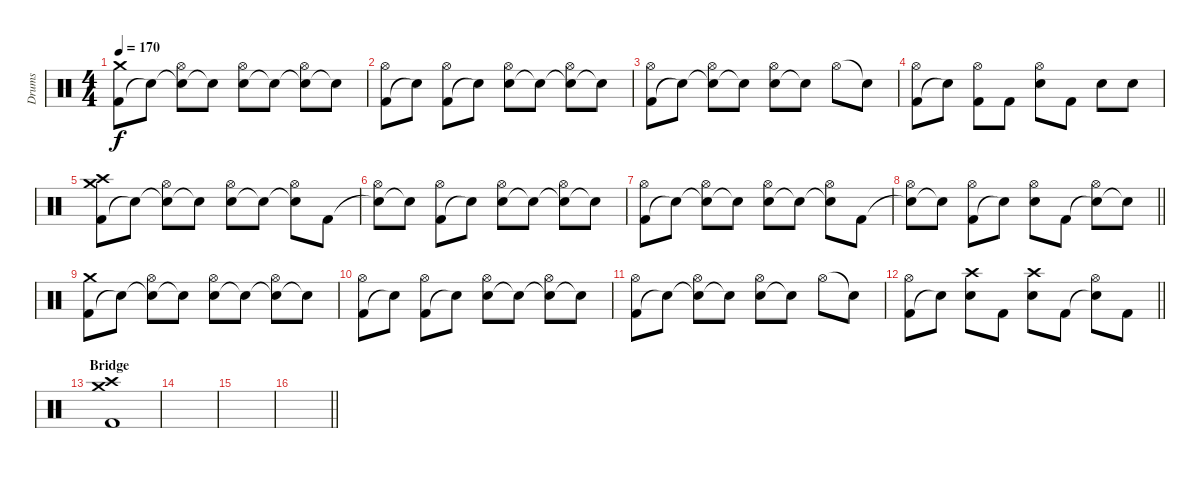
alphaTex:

\track ("Drums" "Drums") {instrument percussion}
\staff {score}
\articulation defaults
\ts (4 4)
\tempo 170
\clef neutral
\ks c
("Kick (hit) 2" "Crash medium (hit)").8{dy f} "Snare (hit)"{t}.8 ("Snare (hit)"{t} "Hi-Hat (open)").8 "Snare (hit)"{t}.8 ("Electric Snare (hit)" "Hi-Hat (open)").8 "Snare (hit)"{t}.8 ("Snare (hit)"{t} "Hi-Hat (open)").8 "Snare (hit)"{t}.8 |
("Kick (hit) 2" "Hi-Hat (open)").8 "Snare (hit)"{t}.8 ("Kick (hit) 2" "Hi-Hat (open)").8 "Snare (hit)"{t}.8 ("Electric Snare (hit)" "Hi-Hat (open)").8 "Snare (hit)"{t}.8 ("Snare (hit)"{t} "Hi-Hat (open)").8 "Snare (hit)"{t}.8 |
("Kick (hit) 2" "Hi-Hat (open)").8 "Snare (hit)"{t}.8 ("Snare (hit)"{t} "Hi-Hat (open)").8 "Snare (hit)"{t}.8 ("Electric Snare (hit)" "Hi-Hat (open)").8 "Snare (hit)"{t}.8 "Hi-Hat (open)".8 "Snare (hit)"{t}.8 |
("Kick (hit) 2" "Hi-Hat (open)").8 "Snare (hit)"{t}.8 ("Kick (hit) 2" "Hi-Hat (open)").8 "Kick (hit) 2".8 ("Electric Snare (hit)" "Hi-Hat (open)").8 "Kick (hit) 2".8 "Electric Snare (hit)".8 "Electric Snare (hit)".8 |
("Kick (hit) 2" "Crash medium (hit)" "Crash high (hit)").8 "Snare (hit)"{t}.8 ("Snare (hit)"{t} "Hi-Hat (open)").8 "Snare (hit)"{t}.8 ("Electric Snare (hit)" "Hi-Hat (open)").8 "Snare (hit)"{t}.8 ("Snare (hit)"{t} "Hi-Hat (open)").8 "Kick (hit) 2".8 |
("Snare (hit)"{t} "Hi-Hat (open)").8 "Snare (hit)"{t}.8 ("Kick (hit) 2" "Hi-Hat (open)").8 "Snare (hit)"{t}.8 ("Electric Snare (hit)" "Hi-Hat (open)").8 "Snare (hit)"{t}.8 ("Snare (hit)"{t} "Hi-Hat (open)").8 "Snare (hit)"{t}.8 |
("Kick (hit) 2" "Hi-Hat (open)").8 "Snare (hit)"{t}.8 ("Snare (hit)"{t} "Hi-Hat (open)").8 "Snare (hit)"{t}.8 ("Electric Snare (hit)" "Hi-Hat (open)").8 "Snare (hit)"{t}.8 ("Snare (hit)"{t} "Hi-Hat (open)").8 "Kick (hit) 2".8 |
\barLineRight lightlight
("Snare (hit)"{t} "Hi-Hat (open)").8 "Snare (hit)"{t}.8 ("Kick (hit) 2" "Hi-Hat (open)").8 "Snare (hit)"{t}.8 ("Electric Snare (hit)" "Hi-Hat (open)").8 "Kick (hit) 2".8 ("Snare (hit)"{t} "Hi-Hat (open)").8 "Snare (hit)"{t}.8 |
("Kick (hit) 2" "Crash medium (hit)").8 "Snare (hit)"{t}.8 ("Snare (hit)"{t} "Hi-Hat (open)").8 "Snare (hit)"{t}.8 ("Electric Snare (hit)" "Hi-Hat (open)").8 "Snare (hit)"{t}.8 ("Snare (hit)"{t} "Hi-Hat (open)").8 "Snare (hit)"{t}.8 |
("Kick (hit) 2" "Hi-Hat (open)").8 "Snare (hit)"{t}.8 ("Kick (hit) 2" "Hi-Hat (open)").8 "Snare (hit)"{t}.8 ("Electric Snare (hit)" "Hi-Hat (open)").8 "Snare (hit)"{t}.8 ("Snare (hit)"{t} "Hi-Hat (open)").8 "Snare (hit)"{t}.8 |
("Kick (hit) 2" "Hi-Hat (open)").8 "Snare (hit)"{t}.8 ("Snare (hit)"{t} "Hi-Hat (open)").8 "Snare (hit)"{t}.8 ("Electric Snare (hit)" "Hi-Hat (open)").8 "Snare (hit)"{t}.8 "Hi-Hat (open)".8 "Snare (hit)"{t}.8 |
\barLineRight lightlight
("Kick (hit) 2" "Hi-Hat (open)").8 "Snare (hit)"{t}.8 ("Electric Snare (hit)" "Crash high (hit)").8 "Kick (hit) 2".8 ("Electric Snare (hit)" "Crash high (hit)").8 "Kick (hit) 2".8 ("Electric Snare (hit)"{t} "Hi-Hat (open)").8 "Kick (hit) 2".8 |
\section ("" "Bridge")
("Kick (hit) 2" "Crash medium (hit)" "Crash high (hit)").1 |
|
|
\barLineRight lightlight
